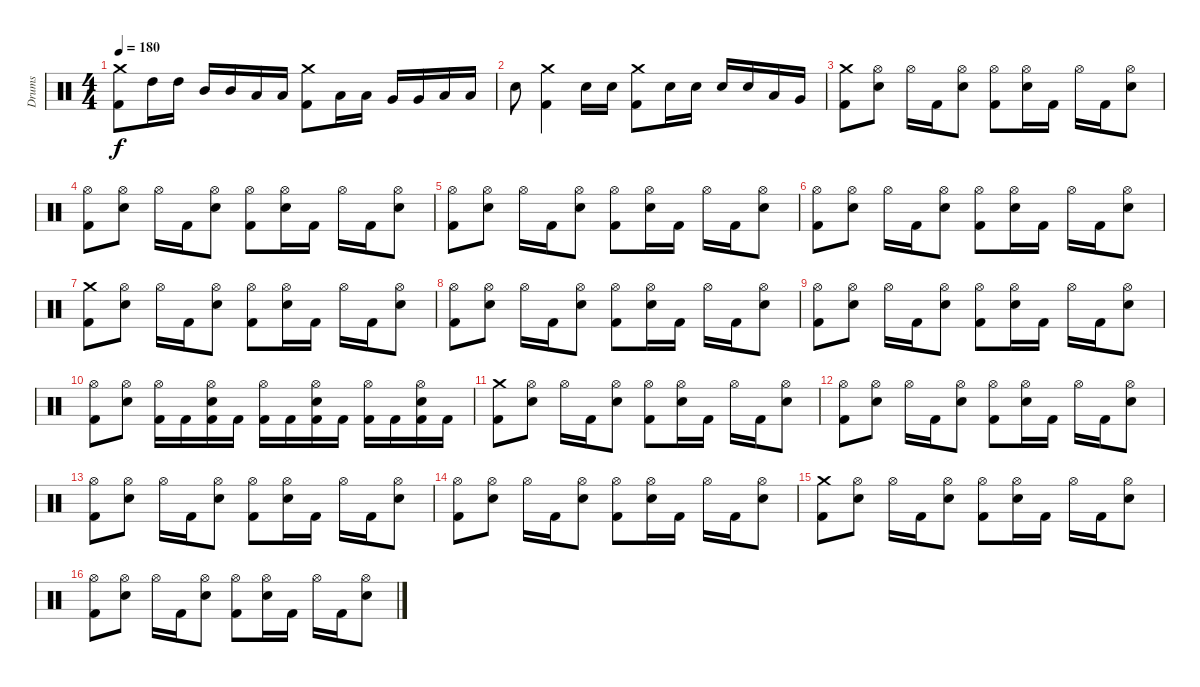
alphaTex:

\track ("Drums" "Drums") {instrument percussion}
\staff {score}
\articulation defaults
\ts (4 4)
\tempo 180
\clef neutral
\ks c
("Crash medium (hit)" "Kick (hit) 2").8{dy f} "High Tom (hit)".16 "High Tom (hit)".16 "Mid Tom (hit)".16 "Mid Tom (hit)".16 "Low Tom (hit)".16 "Low Tom (hit)".16 ("Crash medium (hit)" "Kick (hit) 2").8 "Low Tom (hit)".16 "Low Tom (hit)".16 "Very Low Tom (hit)".16 "Very Low Tom (hit)".16 "Low Floor Tom (hit)".16 "Low Floor Tom (hit)".16 |
"Snare (hit) 2".8 ("Crash medium (hit)" "Kick (hit) 2").4 "Snare (hit) 2".16 "Snare (hit) 2".16 ("Crash medium (hit)" "Kick (hit) 2").8 "Snare (hit) 2".16 "Snare (hit) 2".16 "Snare (hit) 2".16 "Snare (hit) 2".16 "Low Tom (hit)".16 "Very Low Tom (hit)".16 |
("Crash medium (hit)" "Kick (hit) 2").8 ("Hi-Hat (open)" "Snare (hit) 2").8 "Hi-Hat (open)".16 "Kick (hit) 2".16 ("Hi-Hat (open)" "Snare (hit) 2").8 ("Hi-Hat (open)" "Kick (hit) 2").8 ("Hi-Hat (open)" "Snare (hit) 2").16 "Kick (hit) 2".16 "Hi-Hat (open)".16 "Kick (hit) 2".16 ("Hi-Hat (open)" "Snare (hit) 2").8 |
("Hi-Hat (open)" "Kick (hit) 2").8 ("Hi-Hat (open)" "Snare (hit) 2").8 "Hi-Hat (open)".16 "Kick (hit) 2".16 ("Hi-Hat (open)" "Snare (hit) 2").8 ("Hi-Hat (open)" "Kick (hit) 2").8 ("Hi-Hat (open)" "Snare (hit) 2").16 "Kick (hit) 2".16 "Hi-Hat (open)".16 "Kick (hit) 2".16 ("Hi-Hat (open)" "Snare (hit) 2").8 |
("Hi-Hat (open)" "Kick (hit) 2").8 ("Hi-Hat (open)" "Snare (hit) 2").8 "Hi-Hat (open)".16 "Kick (hit) 2".16 ("Hi-Hat (open)" "Snare (hit) 2").8 ("Hi-Hat (open)" "Kick (hit) 2").8 ("Hi-Hat (open)" "Snare (hit) 2").16 "Kick (hit) 2".16 "Hi-Hat (open)".16 "Kick (hit) 2".16 ("Hi-Hat (open)" "Snare (hit) 2").8 |
("Hi-Hat (open)" "Kick (hit) 2").8 ("Hi-Hat (open)" "Snare (hit) 2").8 "Hi-Hat (open)".16 "Kick (hit) 2".16 ("Hi-Hat (open)" "Snare (hit) 2").8 ("Hi-Hat (open)" "Kick (hit) 2").8 ("Hi-Hat (open)" "Snare (hit) 2").16 "Kick (hit) 2".16 "Hi-Hat (open)".16 "Kick (hit) 2".16 ("Hi-Hat (open)" "Snare (hit) 2").8 |
("Crash medium (hit)" "Kick (hit) 2").8 ("Hi-Hat (open)" "Snare (hit) 2").8 "Hi-Hat (open)".16 "Kick (hit) 2".16 ("Hi-Hat (open)" "Snare (hit) 2").8 ("Hi-Hat (open)" "Kick (hit) 2").8 ("Hi-Hat (open)" "Snare (hit) 2").16 "Kick (hit) 2".16 "Hi-Hat (open)".16 "Kick (hit) 2".16 ("Hi-Hat (open)" "Snare (hit) 2").8 |
("Hi-Hat (open)" "Kick (hit) 2").8 ("Hi-Hat (open)" "Snare (hit) 2").8 "Hi-Hat (open)".16 "Kick (hit) 2".16 ("Hi-Hat (open)" "Snare (hit) 2").8 ("Hi-Hat (open)" "Kick (hit) 2").8 ("Hi-Hat (open)" "Snare (hit) 2").16 "Kick (hit) 2".16 "Hi-Hat (open)".16 "Kick (hit) 2".16 ("Hi-Hat (open)" "Snare (hit) 2").8 |
("Hi-Hat (open)" "Kick (hit) 2").8 ("Hi-Hat (open)" "Snare (hit) 2").8 "Hi-Hat (open)".16 "Kick (hit) 2".16 ("Hi-Hat (open)" "Snare (hit) 2").8 ("Hi-Hat (open)" "Kick (hit) 2").8 ("Hi-Hat (open)" "Snare (hit) 2").16 "Kick (hit) 2".16 "Hi-Hat (open)".16 "Kick (hit) 2".16 ("Hi-Hat (open)" "Snare (hit) 2").8 |
("Hi-Hat (open)" "Kick (hit) 2").8 ("Hi-Hat (open)" "Snare (hit) 2").8 ("Hi-Hat (open)" "Kick (hit) 2").16 "Kick (hit) 2".16 ("Hi-Hat (open)" "Snare (hit) 2" "Kick (hit) 2").16 "Kick (hit) 2".16 ("Hi-Hat (open)" "Kick (hit) 2").16 "Kick (hit) 2".16 ("Hi-Hat (open)" "Snare (hit) 2" "Kick (hit) 2").16 "Kick (hit) 2".16 ("Hi-Hat (open)" "Kick (hit) 2").16 "Kick (hit) 2".16 ("Hi-Hat (open)" "Snare (hit) 2" "Kick (hit) 2").16 "Kick (hit) 2".16 |
("Crash medium (hit)" "Kick (hit) 2").8 ("Hi-Hat (open)" "Snare (hit) 2").8 "Hi-Hat (open)".16 "Kick (hit) 2".16 ("Hi-Hat (open)" "Snare (hit) 2").8 ("Hi-Hat (open)" "Kick (hit) 2").8 ("Hi-Hat (open)" "Snare (hit) 2").16 "Kick (hit) 2".16 "Hi-Hat (open)".16 "Kick (hit) 2".16 ("Hi-Hat (open)" "Snare (hit) 2").8 |
("Hi-Hat (open)" "Kick (hit) 2").8 ("Hi-Hat (open)" "Snare (hit) 2").8 "Hi-Hat (open)".16 "Kick (hit) 2".16 ("Hi-Hat (open)" "Snare (hit) 2").8 ("Hi-Hat (open)" "Kick (hit) 2").8 ("Hi-Hat (open)" "Snare (hit) 2").16 "Kick (hit) 2".16 "Hi-Hat (open)".16 "Kick (hit) 2".16 ("Hi-Hat (open)" "Snare (hit) 2").8 |
("Hi-Hat (open)" "Kick (hit) 2").8 ("Hi-Hat (open)" "Snare (hit) 2").8 "Hi-Hat (open)".16 "Kick (hit) 2".16 ("Hi-Hat (open)" "Snare (hit) 2").8 ("Hi-Hat (open)" "Kick (hit) 2").8 ("Hi-Hat (open)" "Snare (hit) 2").16 "Kick (hit) 2".16 "Hi-Hat (open)".16 "Kick (hit) 2".16 ("Hi-Hat (open)" "Snare (hit) 2").8 |
("Hi-Hat (open)" "Kick (hit) 2").8 ("Hi-Hat (open)" "Snare (hit) 2").8 "Hi-Hat (open)".16 "Kick (hit) 2".16 ("Hi-Hat (open)" "Snare (hit) 2").8 ("Hi-Hat (open)" "Kick (hit) 2").8 ("Hi-Hat (open)" "Snare (hit) 2").16 "Kick (hit) 2".16 "Hi-Hat (open)".16 "Kick (hit) 2".16 ("Hi-Hat (open)" "Snare (hit) 2").8 |
("Crash medium (hit)" "Kick (hit) 2").8 ("Hi-Hat (open)" "Snare (hit) 2").8 "Hi-Hat (open)".16 "Kick (hit) 2".16 ("Hi-Hat (open)" "Snare (hit) 2").8 ("Hi-Hat (open)" "Kick (hit) 2").8 ("Hi-Hat (open)" "Snare (hit) 2").16 "Kick (hit) 2".16 "Hi-Hat (open)".16 "Kick (hit) 2".16 ("Hi-Hat (open)" "Snare (hit) 2").8 |
("Hi-Hat (open)" "Kick (hit) 2").8 ("Hi-Hat (open)" "Snare (hit) 2").8 "Hi-Hat (open)".16 "Kick (hit) 2".16 ("Hi-Hat (open)" "Snare (hit) 2").8 ("Hi-Hat (open)" "Kick (hit) 2").8 ("Hi-Hat (open)" "Snare (hit) 2").16 "Kick (hit) 2".16 "Hi-Hat (open)".16 "Kick (hit) 2".16 ("Hi-Hat (open)" "Snare (hit) 2").8
